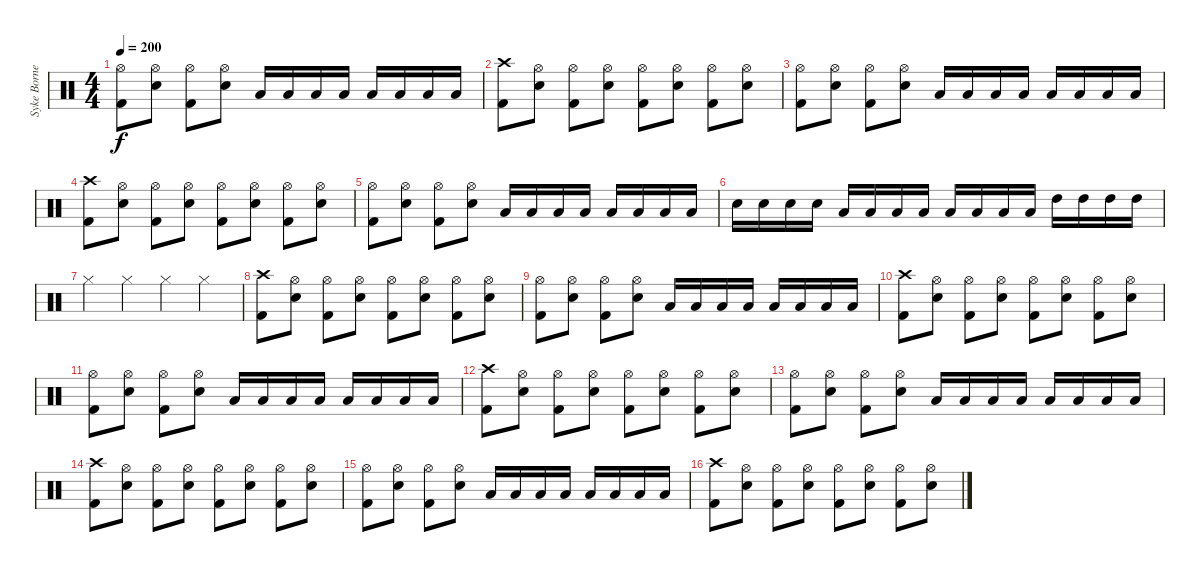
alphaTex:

\track ("Syke Bornetto (Drums)" "Syke Borne") {instrument percussion}
\staff {score}
\articulation defaults
\ts (4 4)
\tempo 200
\clef neutral
\ks c
("Hi-Hat (open)" "Kick (hit) 2").8{dy f} ("Hi-Hat (open)" "Electric Snare (hit)").8 ("Hi-Hat (open)" "Kick (hit) 2").8 ("Hi-Hat (open)" "Electric Snare (hit)").8 "Low Floor Tom (hit)".16 "Low Floor Tom (hit)".16 "Low Floor Tom (hit)".16 "Low Floor Tom (hit)".16 "Low Tom (hit)".16 "Low Tom (hit)".16 "Low Tom (hit)".16 "Low Tom (hit)".16 |
("Crash high (hit)" "Kick (hit) 2").8 ("Hi-Hat (open)" "Electric Snare (hit)").8 ("Hi-Hat (open)" "Kick (hit) 2").8 ("Hi-Hat (open)" "Electric Snare (hit)").8 ("Hi-Hat (open)" "Kick (hit) 2").8 ("Hi-Hat (open)" "Electric Snare (hit)").8 ("Hi-Hat (open)" "Kick (hit) 2").8 ("Hi-Hat (open)" "Electric Snare (hit)").8 |
("Hi-Hat (open)" "Kick (hit) 2").8 ("Hi-Hat (open)" "Electric Snare (hit)").8 ("Hi-Hat (open)" "Kick (hit) 2").8 ("Hi-Hat (open)" "Electric Snare (hit)").8 "Low Floor Tom (hit)".16 "Low Floor Tom (hit)".16 "Low Floor Tom (hit)".16 "Low Floor Tom (hit)".16 "Low Tom (hit)".16 "Low Tom (hit)".16 "Low Tom (hit)".16 "Low Tom (hit)".16 |
("Crash high (hit)" "Kick (hit) 2").8 ("Hi-Hat (open)" "Electric Snare (hit)").8 ("Hi-Hat (open)" "Kick (hit) 2").8 ("Hi-Hat (open)" "Electric Snare (hit)").8 ("Hi-Hat (open)" "Kick (hit) 2").8 ("Hi-Hat (open)" "Electric Snare (hit)").8 ("Hi-Hat (open)" "Kick (hit) 2").8 ("Hi-Hat (open)" "Electric Snare (hit)").8 |
("Hi-Hat (open)" "Kick (hit) 2").8 ("Hi-Hat (open)" "Electric Snare (hit)").8 ("Hi-Hat (open)" "Kick (hit) 2").8 ("Hi-Hat (open)" "Electric Snare (hit)").8 "Low Floor Tom (hit)".16 "Low Floor Tom (hit)".16 "Low Floor Tom (hit)".16 "Low Floor Tom (hit)".16 "Low Tom (hit)".16 "Low Tom (hit)".16 "Low Tom (hit)".16 "Low Tom (hit)".16 |
"Electric Snare (hit)".16 "Electric Snare (hit)".16 "Electric Snare (hit)".16 "Electric Snare (hit)".16 "Low Floor Tom (hit)".16 "Low Floor Tom (hit)".16 "Low Floor Tom (hit)".16 "Low Floor Tom (hit)".16 "Low Tom (hit)".16 "Low Tom (hit)".16 "Low Tom (hit)".16 "Low Tom (hit)".16 "High Tom (hit)".16 "High Tom (hit)".16 "High Tom (hit)".16 "High Tom (hit)".16 |
"Hi-Hat (closed)".4 "Hi-Hat (closed)".4 "Hi-Hat (closed)".4 "Hi-Hat (closed)".4 |
("Crash high (hit)" "Kick (hit) 2").8 ("Hi-Hat (open)" "Electric Snare (hit)").8 ("Hi-Hat (open)" "Kick (hit) 2").8 ("Hi-Hat (open)" "Electric Snare (hit)").8 ("Hi-Hat (open)" "Kick (hit) 2").8 ("Hi-Hat (open)" "Electric Snare (hit)").8 ("Hi-Hat (open)" "Kick (hit) 2").8 ("Hi-Hat (open)" "Electric Snare (hit)").8 |
("Hi-Hat (open)" "Kick (hit) 2").8 ("Hi-Hat (open)" "Electric Snare (hit)").8 ("Hi-Hat (open)" "Kick (hit) 2").8 ("Hi-Hat (open)" "Electric Snare (hit)").8 "Low Floor Tom (hit)".16 "Low Floor Tom (hit)".16 "Low Floor Tom (hit)".16 "Low Floor Tom (hit)".16 "Low Tom (hit)".16 "Low Tom (hit)".16 "Low Tom (hit)".16 "Low Tom (hit)".16 |
("Crash high (hit)" "Kick (hit) 2").8 ("Hi-Hat (open)" "Electric Snare (hit)").8 ("Hi-Hat (open)" "Kick (hit) 2").8 ("Hi-Hat (open)" "Electric Snare (hit)").8 ("Hi-Hat (open)" "Kick (hit) 2").8 ("Hi-Hat (open)" "Electric Snare (hit)").8 ("Hi-Hat (open)" "Kick (hit) 2").8 ("Hi-Hat (open)" "Electric Snare (hit)").8 |
("Hi-Hat (open)" "Kick (hit) 2").8 ("Hi-Hat (open)" "Electric Snare (hit)").8 ("Hi-Hat (open)" "Kick (hit) 2").8 ("Hi-Hat (open)" "Electric Snare (hit)").8 "Low Floor Tom (hit)".16 "Low Floor Tom (hit)".16 "Low Floor Tom (hit)".16 "Low Floor Tom (hit)".16 "Low Tom (hit)".16 "Low Tom (hit)".16 "Low Tom (hit)".16 "Low Tom (hit)".16 |
("Crash high (hit)" "Kick (hit) 2").8 ("Hi-Hat (open)" "Electric Snare (hit)").8 ("Hi-Hat (open)" "Kick (hit) 2").8 ("Hi-Hat (open)" "Electric Snare (hit)").8 ("Hi-Hat (open)" "Kick (hit) 2").8 ("Hi-Hat (open)" "Electric Snare (hit)").8 ("Hi-Hat (open)" "Kick (hit) 2").8 ("Hi-Hat (open)" "Electric Snare (hit)").8 |
("Hi-Hat (open)" "Kick (hit) 2").8 ("Hi-Hat (open)" "Electric Snare (hit)").8 ("Hi-Hat (open)" "Kick (hit) 2").8 ("Hi-Hat (open)" "Electric Snare (hit)").8 "Low Floor Tom (hit)".16 "Low Floor Tom (hit)".16 "Low Floor Tom (hit)".16 "Low Floor Tom (hit)".16 "Low Tom (hit)".16 "Low Tom (hit)".16 "Low Tom (hit)".16 "Low Tom (hit)".16 |
("Crash high (hit)" "Kick (hit) 2").8 ("Hi-Hat (open)" "Electric Snare (hit)").8 ("Hi-Hat (open)" "Kick (hit) 2").8 ("Hi-Hat (open)" "Electric Snare (hit)").8 ("Hi-Hat (open)" "Kick (hit) 2").8 ("Hi-Hat (open)" "Electric Snare (hit)").8 ("Hi-Hat (open)" "Kick (hit) 2").8 ("Hi-Hat (open)" "Electric Snare (hit)").8 |
("Hi-Hat (open)" "Kick (hit) 2").8 ("Hi-Hat (open)" "Electric Snare (hit)").8 ("Hi-Hat (open)" "Kick (hit) 2").8 ("Hi-Hat (open)" "Electric Snare (hit)").8 "Low Floor Tom (hit)".16 "Low Floor Tom (hit)".16 "Low Floor Tom (hit)".16 "Low Floor Tom (hit)".16 "Low Tom (hit)".16 "Low Tom (hit)".16 "Low Tom (hit)".16 "Low Tom (hit)".16 |
("Crash high (hit)" "Kick (hit) 2").8 ("Hi-Hat (open)" "Electric Snare (hit)").8 ("Hi-Hat (open)" "Kick (hit) 2").8 ("Hi-Hat (open)" "Electric Snare (hit)").8 ("Hi-Hat (open)" "Kick (hit) 2").8 ("Hi-Hat (open)" "Electric Snare (hit)").8 ("Hi-Hat (open)" "Kick (hit) 2").8 ("Hi-Hat (open)" "Electric Snare (hit)").8
